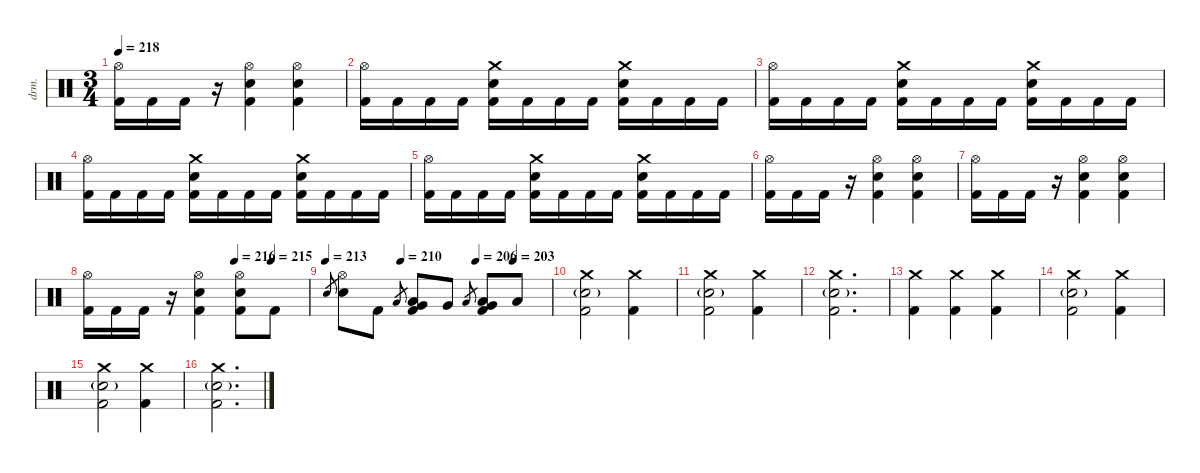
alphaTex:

\defaultSystemsLayout 4
\hideDynamics
\bracketExtendMode nobrackets
\otherSystemsTrackNameOrientation horizontal
\track ("Drums" "drm.") {instrument percussion}
\staff {score}
\articulation defaults
\ts (3 4)
\tempo 218
\clef neutral
\ks c
("Hi-Hat (open)" "Kick (hit) 2").16{dy f beam Down} "Kick (hit) 2".16{beam Down} "Kick (hit) 2".16{beam Down} r.16{beam Down} ("Hi-Hat (open)" "Snare (hit) 2" "Kick (hit) 2").4{beam Down} ("Hi-Hat (open)" "Snare (hit) 2" "Kick (hit) 2").4{beam Down} |
("Hi-Hat (open)" "Kick (hit) 2").16{beam Down} "Kick (hit) 2".16{beam Down} "Kick (hit) 2".16{beam Down} "Kick (hit) 2".16{beam Down} ("Crash medium (hit)" "Snare (hit) 2" "Kick (hit) 2").16{beam Down} "Kick (hit) 2".16{beam Down} "Kick (hit) 2".16{beam Down} "Kick (hit) 2".16{beam Down} ("Crash medium (hit)" "Snare (hit) 2" "Kick (hit) 2").16{beam Down} "Kick (hit) 2".16{beam Down} "Kick (hit) 2".16{beam Down} "Kick (hit) 2".16{beam Down} |
("Hi-Hat (open)" "Kick (hit) 2").16{beam Down} "Kick (hit) 2".16{beam Down} "Kick (hit) 2".16{beam Down} "Kick (hit) 2".16{beam Down} ("Crash medium (hit)" "Snare (hit) 2" "Kick (hit) 2").16{beam Down} "Kick (hit) 2".16{beam Down} "Kick (hit) 2".16{beam Down} "Kick (hit) 2".16{beam Down} ("Crash medium (hit)" "Snare (hit) 2" "Kick (hit) 2").16{beam Down} "Kick (hit) 2".16{beam Down} "Kick (hit) 2".16{beam Down} "Kick (hit) 2".16{beam Down} |
("Hi-Hat (open)" "Kick (hit) 2").16{beam Down} "Kick (hit) 2".16{beam Down} "Kick (hit) 2".16{beam Down} "Kick (hit) 2".16{beam Down} ("Crash medium (hit)" "Snare (hit) 2" "Kick (hit) 2").16{beam Down} "Kick (hit) 2".16{beam Down} "Kick (hit) 2".16{beam Down} "Kick (hit) 2".16{beam Down} ("Crash medium (hit)" "Snare (hit) 2" "Kick (hit) 2").16{beam Down} "Kick (hit) 2".16{beam Down} "Kick (hit) 2".16{beam Down} "Kick (hit) 2".16{beam Down} |
("Hi-Hat (open)" "Kick (hit) 2").16{beam Down} "Kick (hit) 2".16{beam Down} "Kick (hit) 2".16{beam Down} "Kick (hit) 2".16{beam Down} ("Crash medium (hit)" "Snare (hit) 2" "Kick (hit) 2").16{beam Down} "Kick (hit) 2".16{beam Down} "Kick (hit) 2".16{beam Down} "Kick (hit) 2".16{beam Down} ("Crash medium (hit)" "Snare (hit) 2" "Kick (hit) 2").16{beam Down} "Kick (hit) 2".16{beam Down} "Kick (hit) 2".16{beam Down} "Kick (hit) 2".16{beam Down} |
("Hi-Hat (open)" "Kick (hit) 2").16{beam Down} "Kick (hit) 2".16{beam Down} "Kick (hit) 2".16{beam Down} r.16{beam Down} ("Hi-Hat (open)" "Snare (hit) 2" "Kick (hit) 2").4{beam Down} ("Hi-Hat (open)" "Snare (hit) 2" "Kick (hit) 2").4{beam Down} |
("Hi-Hat (open)" "Kick (hit) 2").16{beam Down} "Kick (hit) 2".16{beam Down} "Kick (hit) 2".16{beam Down} r.16{beam Down} ("Hi-Hat (open)" "Snare (hit) 2" "Kick (hit) 2").4{beam Down} ("Hi-Hat (open)" "Snare (hit) 2" "Kick (hit) 2").4{beam Down} |
\tempo (216 0.666667)
\tempo (215 0.833333)
("Hi-Hat (open)" "Kick (hit) 2").16{beam Down} "Kick (hit) 2".16{beam Down} "Kick (hit) 2".16{beam Down} r.16{beam Down} ("Hi-Hat (open)" "Snare (hit) 2" "Kick (hit) 2").4{beam Down} ("Hi-Hat (open)" "Snare (hit) 2" "Kick (hit) 2").8{beam Down} "Kick (hit) 2".8{beam Down} |
\tempo 213
\tempo (210 0.333333)
\tempo (206 0.666667)
\tempo (203 0.833333)
"Electric Snare (hit)".8{gr dy mf beam Up} ("Hi-Hat (open)" "Snare (hit) 2").8{dy f beam Down} "Kick (hit) 2".8{beam Down} "Low Tom (hit)".8{gr dy mf beam Up} ("Very Low Tom (hit)" "Low Tom (hit)" "Kick (hit) 2").8{dy f beam Up} "Very Low Tom (hit)".8{beam Up} "Low Floor Tom (hit)".8{gr dy mf beam Up} ("Very Low Tom (hit)" "Low Floor Tom (hit)" "Kick (hit) 2").8{dy f beam Up} "Low Floor Tom (hit)".8{beam Up} |
("Crash medium (hit)" "Snare (hit) 2"{g} "Kick (hit) 2").2{beam Down} ("Crash medium (hit)" "Kick (hit) 2").4{beam Down} |
("Crash medium (hit)" "Snare (hit) 2"{g} "Kick (hit) 2").2{beam Down} ("Crash medium (hit)" "Kick (hit) 2").4{beam Down} |
("Crash medium (hit)" "Snare (hit) 2"{g} "Kick (hit) 2").2{d beam Down} |
("Crash medium (hit)" "Kick (hit) 2").4{beam Down} ("Crash medium (hit)" "Kick (hit) 2").4{beam Down} ("Crash medium (hit)" "Kick (hit) 2").4{beam Down} |
("Crash medium (hit)" "Snare (hit) 2"{g} "Kick (hit) 2").2{beam Down} ("Crash medium (hit)" "Kick (hit) 2").4{beam Down} |
("Crash medium (hit)" "Snare (hit) 2"{g} "Kick (hit) 2").2{beam Down} ("Crash medium (hit)" "Kick (hit) 2").4{beam Down} |
("Crash medium (hit)" "Snare (hit) 2"{g} "Kick (hit) 2").2{d beam Down}
